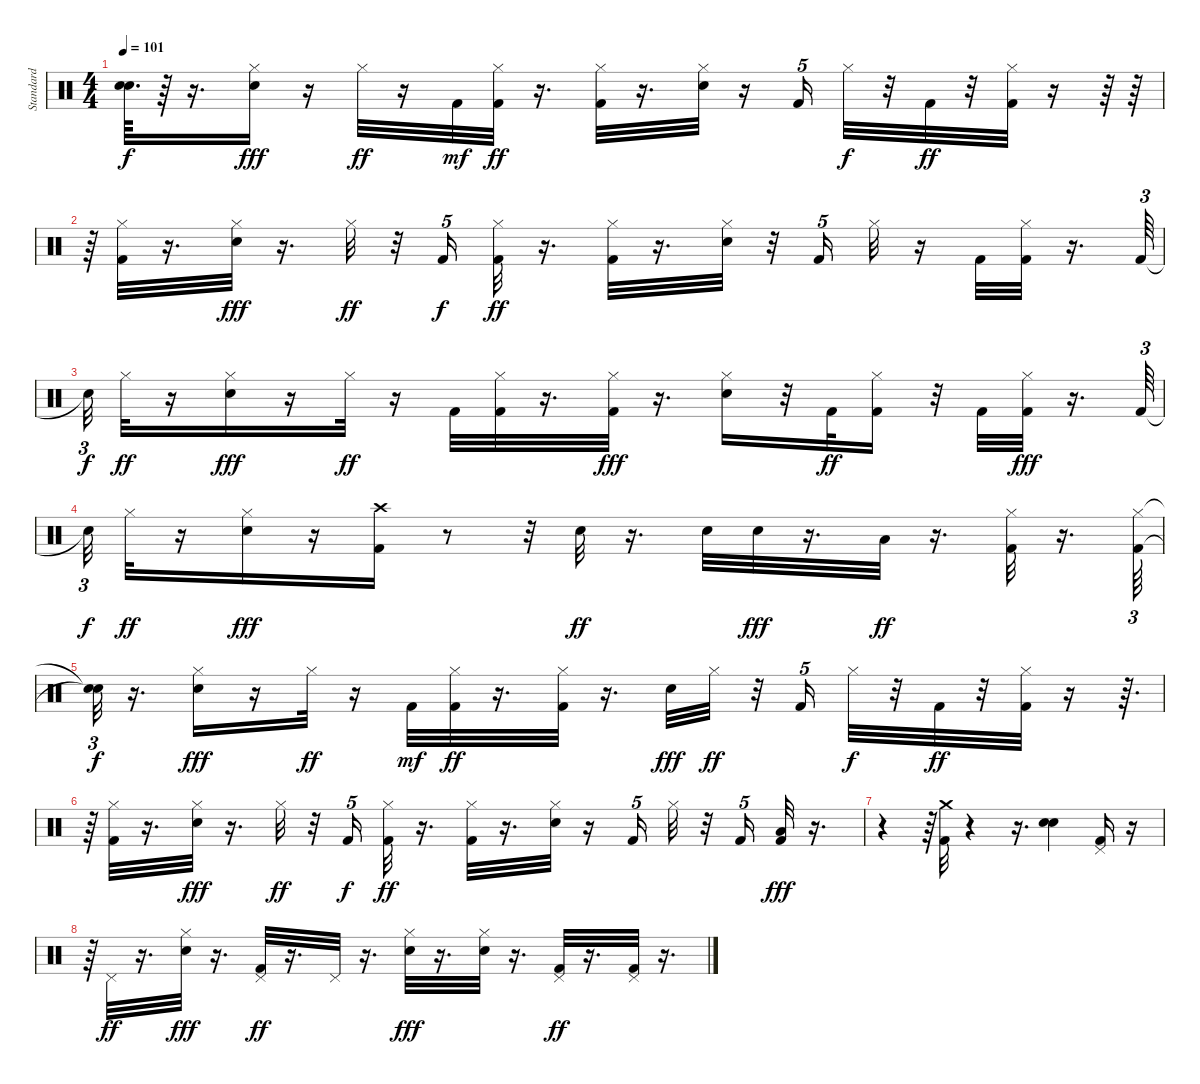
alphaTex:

\track (" Standard" " Standard") {instrument percussion}
\staff {score}
\articulation defaults
\ts (4 4)
\tempo 101
\clef neutral
\ks c
("Snare (hit)"{t} "Snare (hit)"{t}).64{d dy f} r.64 r.16{d} ("Hi-Hat (closed)" "Electric Snare (hit)").16{dy fff} r.16 "Hi-Hat (closed)".32{dy ff} r.16 "Kick (hit) 2".32{dy mf} ("Hi-Hat (closed)" "Kick (hit) 2").32{dy ff} r.16{d} ("Hi-Hat (closed)" "Kick (hit) 2").32 r.16{d} ("Electric Snare (hit)" "Hi-Hat (closed)").32 r.16 "Kick (hit) 2".16{tu (5 4)} "Hi-Hat (closed)".32{dy f} r.32 "Kick (hit) 2".32{dy ff} r.32 ("Hi-Hat (closed)" "Kick (hit) 2").32 r.16 r.64 r.64 |
r.64 ("Hi-Hat (closed)" "Kick (hit) 2").32 r.16{d} ("Hi-Hat (closed)" "Electric Snare (hit)").32{dy fff} r.16{d} "Hi-Hat (closed)".32{dy ff} r.32 "Kick (hit) 2".16{tu (5 4) dy f} ("Hi-Hat (closed)" "Kick (hit) 2").32{dy ff} r.16{d} ("Hi-Hat (closed)" "Kick (hit) 2").32 r.16{d} ("Electric Snare (hit)" "Hi-Hat (closed)").32 r.32 "Kick (hit) 2".16{tu (5 4)} "Hi-Hat (closed)".32 r.16 "Kick (hit) 2".32 ("Hi-Hat (closed)" "Kick (hit) 2").32 r.16{d} "Kick (hit) 2".64{tu (3 2)} |
"Snare (hit)"{t}.32{tu (3 2) dy f} "Hi-Hat (closed)".32{dy ff} r.16 ("Hi-Hat (closed)" "Electric Snare (hit)").16{dy fff} r.16 "Hi-Hat (closed)".32{dy ff} r.16 "Kick (hit) 2".32 ("Hi-Hat (closed)" "Kick (hit) 2").32 r.16{d} ("Hi-Hat (closed)" "Kick (hit) 2").32{dy fff} r.16{d} ("Hi-Hat (closed)" "Electric Snare (hit)").16 r.32 "Kick (hit) 2".32{dy ff} ("Hi-Hat (closed)" "Kick (hit) 2").16 r.32 "Kick (hit) 2".32 ("Hi-Hat (closed)" "Kick (hit) 2").32{dy fff} r.16{d} "Kick (hit) 2".64{tu (3 2)} |
"Snare (hit)"{t}.32{tu (3 2) dy f} "Hi-Hat (closed)".32{dy ff} r.16 ("Hi-Hat (closed)" "Electric Snare (hit)").16{dy fff} r.16 ("Crash high (hit)" "Kick (hit) 2").16 r.8 r.32 "Electric Snare (hit)".32{dy ff} r.16{d} "Electric Snare (hit)".32 "Electric Snare (hit)".32{dy fff} r.16{d} "Low Tom (hit)".32{dy ff} r.16{d} ("Hi-Hat (closed)" "Kick (hit) 2").32 r.16{d} ("Hi-Hat (closed)" "Kick (hit) 2").64{tu (3 2)} |
("Snare (hit)"{t} "Snare (hit)"{t}).32{tu (3 2) dy f} r.16{d} ("Hi-Hat (closed)" "Electric Snare (hit)").16{dy fff} r.16 "Hi-Hat (closed)".32{dy ff} r.16 "Kick (hit) 2".32{dy mf} ("Hi-Hat (closed)" "Kick (hit) 2").32{dy ff} r.16{d} ("Hi-Hat (closed)" "Kick (hit) 2").32 r.16{d} "Electric Snare (hit)".32{dy fff} "Hi-Hat (closed)".32{dy ff} r.32 "Kick (hit) 2".16{tu (5 4)} "Hi-Hat (closed)".32{dy f} r.32 "Kick (hit) 2".32{dy ff} r.32 ("Hi-Hat (closed)" "Kick (hit) 2").32 r.16 r.64{d} |
r.64 ("Hi-Hat (closed)" "Kick (hit) 2").32 r.16{d} ("Hi-Hat (closed)" "Electric Snare (hit)").32{dy fff} r.16{d} "Hi-Hat (closed)".32{dy ff} r.32 "Kick (hit) 2".16{tu (5 4) dy f} ("Hi-Hat (closed)" "Kick (hit) 2").32{dy ff} r.16{d} ("Hi-Hat (closed)" "Kick (hit) 2").32 r.16{d} ("Electric Snare (hit)" "Hi-Hat (closed)").32 r.16 "Kick (hit) 2".16{tu (5 4)} "Hi-Hat (closed)".32 r.32 "Kick (hit) 2".16{tu (5 4)} ("Kick (hit) 2" "Low Tom (hit)").32{dy fff} r.16{d} |
r.4 r.64 ("Crash medium (hit)" "Kick (hit) 2").32 r.4 r.16{d} ("Electric Snare (hit)" "Electric Snare (hit)").4 ("Pedal Hi-Hat (hit)" "Kick (hit) 2").16 r.16 |
r.64 "Pedal Hi-Hat (hit)".32{dy ff} r.16{d} ("Hi-Hat (closed)" "Electric Snare (hit)").32{dy fff} r.16{d} ("Kick (hit) 2" "Pedal Hi-Hat (hit)").32{dy ff} r.16{d} "Pedal Hi-Hat (hit)".32 r.16{d} ("Electric Snare (hit)" "Hi-Hat (closed)").32{dy fff} r.16{d} ("Electric Snare (hit)" "Hi-Hat (closed)").32 r.16{d} ("Kick (hit) 2" "Pedal Hi-Hat (hit)").32{dy ff} r.16{d} ("Kick (hit) 2" "Pedal Hi-Hat (hit)").32 r.16{d}
